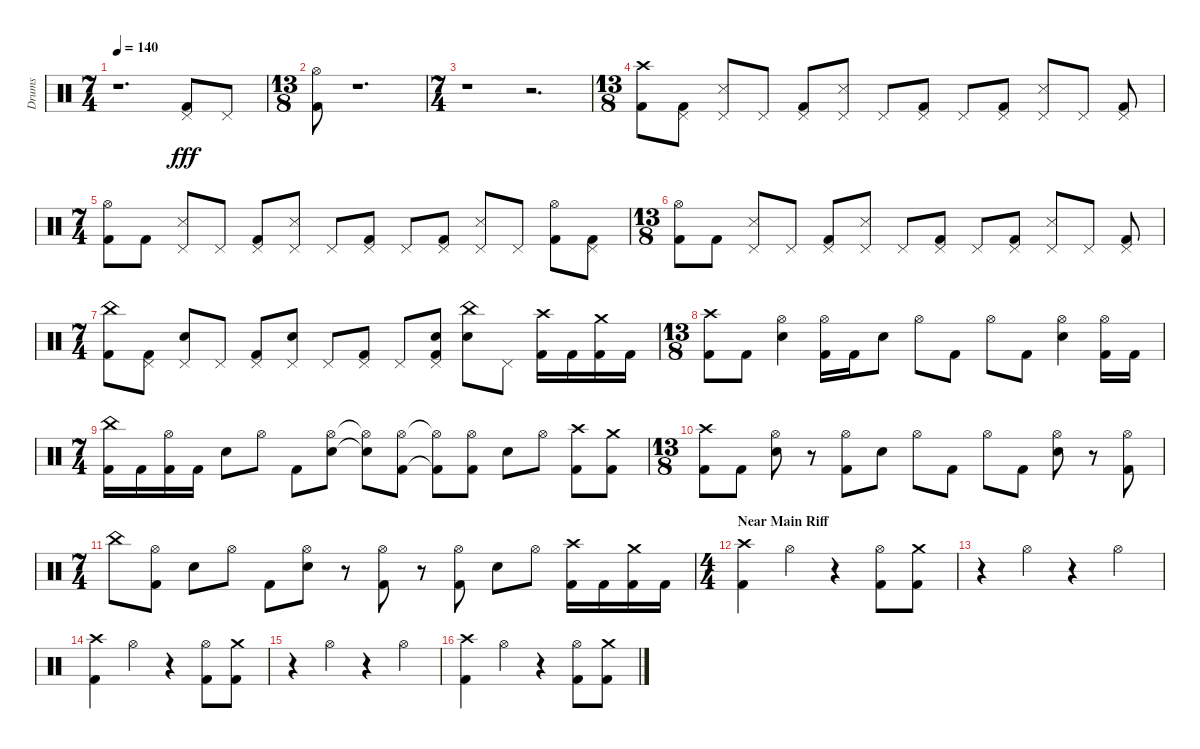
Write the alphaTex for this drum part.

\track ("Drums" "Drums") {instrument percussion}
\staff {score}
\articulation defaults
\ts (7 4)
\tempo 140
\clef neutral
\ks aminor
r.1{d dy fff} ("Kick (hit) 2" "Pedal Hi-Hat (hit)").8 "Pedal Hi-Hat (hit)".8 |
\ts (13 8)
("Hi-Hat (open)" "Kick (hit) 2").8 r.1{d} |
\ts (7 4)
r.1 r.2{d} |
\ts (13 8)
("Crash high (hit)" "Kick (hit) 2").8 ("Pedal Hi-Hat (hit)" "Kick (hit) 2").8 ("Pedal Hi-Hat (hit)" "Snare (side stick) 3").8 "Pedal Hi-Hat (hit)".8 ("Kick (hit) 2" "Pedal Hi-Hat (hit)").8 ("Pedal Hi-Hat (hit)" "Snare (side stick) 3").8 "Pedal Hi-Hat (hit)".8 ("Kick (hit) 2" "Pedal Hi-Hat (hit)").8 "Pedal Hi-Hat (hit)".8 ("Pedal Hi-Hat (hit)" "Kick (hit) 2").8 ("Snare (side stick) 3" "Pedal Hi-Hat (hit)").8 "Pedal Hi-Hat (hit)".8 ("Pedal Hi-Hat (hit)" "Kick (hit) 2").8 |
\ts (7 4)
("Kick (hit) 2" "Hi-Hat (open)").8 "Kick (hit) 2".8 ("Snare (side stick) 3" "Pedal Hi-Hat (hit)").8 "Pedal Hi-Hat (hit)".8 ("Kick (hit) 2" "Pedal Hi-Hat (hit)").8 ("Snare (side stick) 3" "Pedal Hi-Hat (hit)").8 "Pedal Hi-Hat (hit)".8 ("Pedal Hi-Hat (hit)" "Kick (hit) 2").8 "Pedal Hi-Hat (hit)".8 ("Kick (hit) 2" "Pedal Hi-Hat (hit)").8 ("Snare (side stick) 3" "Pedal Hi-Hat (hit)").8 "Pedal Hi-Hat (hit)".8 ("Hi-Hat (open)" "Kick (hit) 2").8 ("Kick (hit) 2" "Pedal Hi-Hat (hit)").8 |
\ts (13 8)
("Kick (hit) 2" "Hi-Hat (open)").8 "Kick (hit) 2".8 ("Pedal Hi-Hat (hit)" "Snare (side stick) 3").8 "Pedal Hi-Hat (hit)".8 ("Kick (hit) 2" "Pedal Hi-Hat (hit)").8 ("Pedal Hi-Hat (hit)" "Snare (side stick) 3").8 "Pedal Hi-Hat (hit)".8 ("Kick (hit) 2" "Pedal Hi-Hat (hit)").8 "Pedal Hi-Hat (hit)".8 ("Kick (hit) 2" "Pedal Hi-Hat (hit)").8 ("Snare (side stick) 3" "Pedal Hi-Hat (hit)").8 "Pedal Hi-Hat (hit)".8 ("Pedal Hi-Hat (hit)" "Kick (hit) 2").8 |
\ts (7 4)
("China (hit)" "Kick (hit) 2").8 ("Kick (hit) 2" "Pedal Hi-Hat (hit)").8 ("Snare (hit) 2" "Pedal Hi-Hat (hit)").8 "Pedal Hi-Hat (hit)".8 ("Kick (hit) 2" "Pedal Hi-Hat (hit)").8 ("Pedal Hi-Hat (hit)" "Snare (hit) 2").8 "Pedal Hi-Hat (hit)".8 ("Kick (hit) 2" "Pedal Hi-Hat (hit)").8 "Pedal Hi-Hat (hit)".8 ("Pedal Hi-Hat (hit)" "Kick (hit) 2" "Snare (hit) 2").8 ("China (hit)" "Snare (hit) 2").8 "Pedal Hi-Hat (hit)".8 ("Kick (hit) 2" "Crash high (hit)").16 "Kick (hit) 2".16 ("Kick (hit) 2" "Crash medium (hit)").16 "Kick (hit) 2".16 |
\ts (13 8)
("Crash high (hit)" "Kick (hit) 2").8 "Kick (hit) 2".8 ("Snare (hit) 2" "Hi-Hat (open)").4 ("Hi-Hat (open)" "Kick (hit) 2").16 "Kick (hit) 2".16 "Snare (hit) 2".8 "Hi-Hat (open)".8 "Kick (hit) 2".8 "Hi-Hat (open)".8 "Kick (hit) 2".8 ("Hi-Hat (open)" "Snare (hit) 2").4 ("Hi-Hat (open)" "Kick (hit) 2").16 "Kick (hit) 2".16 |
\ts (7 4)
("Kick (hit) 2" "China (hit)").16 "Kick (hit) 2".16 ("Kick (hit) 2" "Hi-Hat (open)").16 "Kick (hit) 2".16 "Snare (hit) 2".8 "Hi-Hat (open)".8 "Kick (hit) 2".8 ("Snare (hit) 2" "Hi-Hat (open)").8 ("Snare (hit) 2"{t} "Hi-Hat (open)"{t}).8 ("Kick (hit) 2" "Hi-Hat (open)").8 ("Kick (hit) 2"{t} "Hi-Hat (open)"{t}).8 ("Kick (hit) 2" "Hi-Hat (open)").8 "Snare (hit) 2".8 "Hi-Hat (open)".8 ("Crash high (hit)" "Kick (hit) 2").8 ("Kick (hit) 2" "Crash medium (hit)").8 |
\ts (13 8)
("Crash high (hit)" "Kick (hit) 2").8 "Kick (hit) 2".8 ("Hi-Hat (open)" "Snare (hit) 2").8 r.8 ("Hi-Hat (open)" "Kick (hit) 2").8 "Snare (hit) 2".8 "Hi-Hat (open)".8 "Kick (hit) 2".8 "Hi-Hat (open)".8 "Kick (hit) 2".8 ("Snare (hit) 2" "Hi-Hat (open)").8 r.8 ("Hi-Hat (open)" "Kick (hit) 2").8 |
\ts (7 4)
"China (hit)".8 ("Kick (hit) 2" "Hi-Hat (open)").8 "Snare (hit) 2".8 "Hi-Hat (open)".8 "Kick (hit) 2".8 ("Snare (hit) 2" "Hi-Hat (open)").8 r.8 ("Kick (hit) 2" "Hi-Hat (open)").8 r.8 ("Kick (hit) 2" "Hi-Hat (open)").8 "Snare (hit) 2".8 "Hi-Hat (open)".8 ("Crash high (hit)" "Kick (hit) 2").16 "Kick (hit) 2".16 ("Kick (hit) 2" "Crash medium (hit)").16 "Kick (hit) 2".16 |
\ts (4 4)
\section ("" "Near Main Riff")
("Kick (hit) 2" "Crash high (hit)").4 "Hi-Hat (open)".4 r.4 ("Kick (hit) 2" "Hi-Hat (open)").8 ("Crash medium (hit)" "Kick (hit) 2").8 |
r.4 "Hi-Hat (open)".4 r.4 "Hi-Hat (open)".4 |
("Kick (hit) 2" "Crash high (hit)").4 "Hi-Hat (open)".4 r.4 ("Kick (hit) 2" "Hi-Hat (open)").8 ("Kick (hit) 2" "Crash medium (hit)").8 |
r.4 "Hi-Hat (open)".4 r.4 "Hi-Hat (open)".4 |
("Crash high (hit)" "Kick (hit) 2").4 "Hi-Hat (open)".4 r.4 ("Hi-Hat (open)" "Kick (hit) 2").8 ("Kick (hit) 2" "Crash medium (hit)").8
